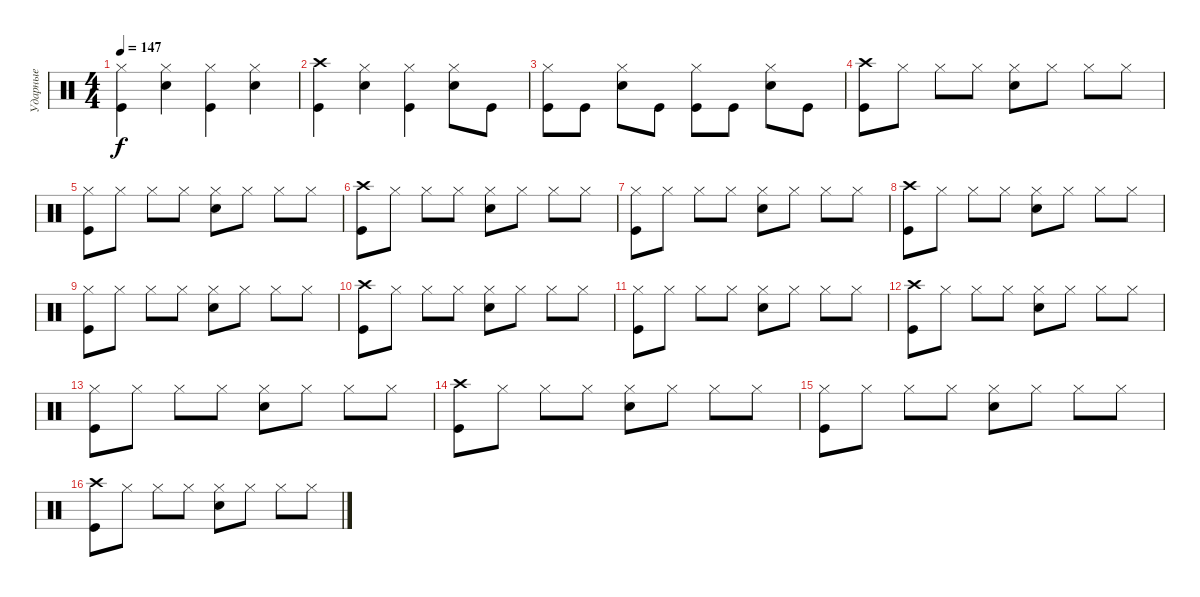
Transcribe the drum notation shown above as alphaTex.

\track ("Ударные" "Ударные") {instrument percussion}
\staff {score}
\articulation defaults
\ts (4 4)
\tempo 147
\clef neutral
\ks c
("Hi-Hat (closed)" "Kick (hit)").4{dy f} ("Hi-Hat (closed)" "Electric Snare (hit)").4 ("Hi-Hat (closed)" "Kick (hit)").4 ("Hi-Hat (closed)" "Electric Snare (hit)").4 |
("Crash high (hit)" "Kick (hit)").4 ("Hi-Hat (closed)" "Electric Snare (hit)").4 ("Hi-Hat (closed)" "Kick (hit)").4 ("Hi-Hat (closed)" "Electric Snare (hit)").8 "Kick (hit)".8 |
("Hi-Hat (closed)" "Kick (hit)").8 "Kick (hit)".8 ("Hi-Hat (closed)" "Electric Snare (hit)").8 "Kick (hit)".8 ("Hi-Hat (closed)" "Kick (hit)").8 "Kick (hit)".8 ("Hi-Hat (closed)" "Electric Snare (hit)").8 "Kick (hit)".8 |
("Crash high (hit)" "Kick (hit)").8 "Hi-Hat (closed)".8 "Hi-Hat (closed)".8 "Hi-Hat (closed)".8 ("Hi-Hat (closed)" "Electric Snare (hit)").8 "Hi-Hat (closed)".8 "Hi-Hat (closed)".8 "Hi-Hat (closed)".8 |
("Hi-Hat (closed)" "Kick (hit)").8 "Hi-Hat (closed)".8 "Hi-Hat (closed)".8 "Hi-Hat (closed)".8 ("Hi-Hat (closed)" "Electric Snare (hit)").8 "Hi-Hat (closed)".8 "Hi-Hat (closed)".8 "Hi-Hat (closed)".8 |
("Crash high (hit)" "Kick (hit)").8 "Hi-Hat (closed)".8 "Hi-Hat (closed)".8 "Hi-Hat (closed)".8 ("Hi-Hat (closed)" "Electric Snare (hit)").8 "Hi-Hat (closed)".8 "Hi-Hat (closed)".8 "Hi-Hat (closed)".8 |
("Hi-Hat (closed)" "Kick (hit)").8 "Hi-Hat (closed)".8 "Hi-Hat (closed)".8 "Hi-Hat (closed)".8 ("Hi-Hat (closed)" "Electric Snare (hit)").8 "Hi-Hat (closed)".8 "Hi-Hat (closed)".8 "Hi-Hat (closed)".8 |
("Crash high (hit)" "Kick (hit)").8 "Hi-Hat (closed)".8 "Hi-Hat (closed)".8 "Hi-Hat (closed)".8 ("Hi-Hat (closed)" "Electric Snare (hit)").8 "Hi-Hat (closed)".8 "Hi-Hat (closed)".8 "Hi-Hat (closed)".8 |
("Hi-Hat (closed)" "Kick (hit)").8 "Hi-Hat (closed)".8 "Hi-Hat (closed)".8 "Hi-Hat (closed)".8 ("Hi-Hat (closed)" "Electric Snare (hit)").8 "Hi-Hat (closed)".8 "Hi-Hat (closed)".8 "Hi-Hat (closed)".8 |
("Crash high (hit)" "Kick (hit)").8 "Hi-Hat (closed)".8 "Hi-Hat (closed)".8 "Hi-Hat (closed)".8 ("Hi-Hat (closed)" "Electric Snare (hit)").8 "Hi-Hat (closed)".8 "Hi-Hat (closed)".8 "Hi-Hat (closed)".8 |
("Hi-Hat (closed)" "Kick (hit)").8 "Hi-Hat (closed)".8 "Hi-Hat (closed)".8 "Hi-Hat (closed)".8 ("Hi-Hat (closed)" "Electric Snare (hit)").8 "Hi-Hat (closed)".8 "Hi-Hat (closed)".8 "Hi-Hat (closed)".8 |
("Crash high (hit)" "Kick (hit)").8 "Hi-Hat (closed)".8 "Hi-Hat (closed)".8 "Hi-Hat (closed)".8 ("Hi-Hat (closed)" "Electric Snare (hit)").8 "Hi-Hat (closed)".8 "Hi-Hat (closed)".8 "Hi-Hat (closed)".8 |
("Hi-Hat (closed)" "Kick (hit)").8 "Hi-Hat (closed)".8 "Hi-Hat (closed)".8 "Hi-Hat (closed)".8 ("Hi-Hat (closed)" "Electric Snare (hit)").8 "Hi-Hat (closed)".8 "Hi-Hat (closed)".8 "Hi-Hat (closed)".8 |
("Crash high (hit)" "Kick (hit)").8 "Hi-Hat (closed)".8 "Hi-Hat (closed)".8 "Hi-Hat (closed)".8 ("Hi-Hat (closed)" "Electric Snare (hit)").8 "Hi-Hat (closed)".8 "Hi-Hat (closed)".8 "Hi-Hat (closed)".8 |
("Hi-Hat (closed)" "Kick (hit)").8 "Hi-Hat (closed)".8 "Hi-Hat (closed)".8 "Hi-Hat (closed)".8 ("Hi-Hat (closed)" "Electric Snare (hit)").8 "Hi-Hat (closed)".8 "Hi-Hat (closed)".8 "Hi-Hat (closed)".8 |
("Crash high (hit)" "Kick (hit)").8 "Hi-Hat (closed)".8 "Hi-Hat (closed)".8 "Hi-Hat (closed)".8 ("Hi-Hat (closed)" "Electric Snare (hit)").8 "Hi-Hat (closed)".8 "Hi-Hat (closed)".8 "Hi-Hat (closed)".8
